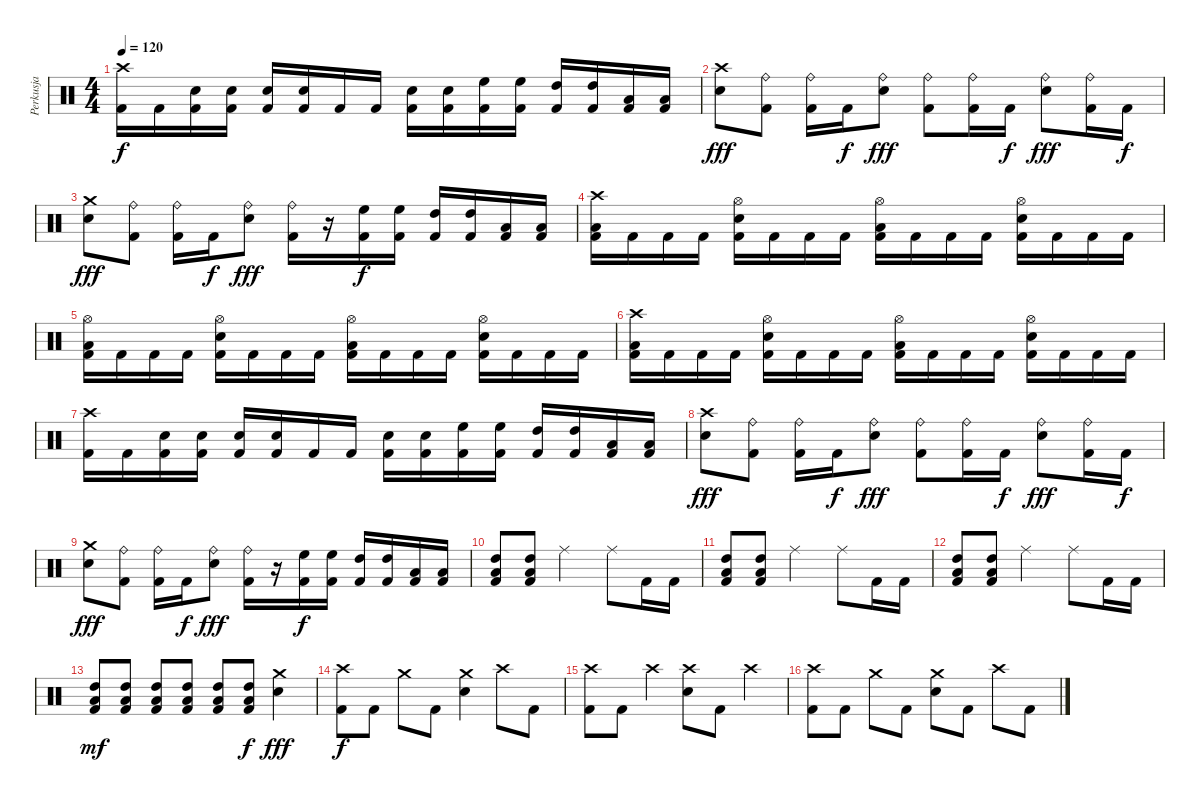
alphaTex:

\track ("Perkusja" "Perkusja") {instrument percussion}
\staff {score}
\articulation defaults
\ts (4 4)
\tempo 120
\clef neutral
\ks c
("Crash high (hit)" "Kick (hit) 2").16{dy f} "Kick (hit) 2".16 ("Electric Snare (hit)" "Kick (hit) 2").16 ("Electric Snare (hit)" "Kick (hit) 2").16 ("Electric Snare (hit)" "Kick (hit) 2").16 ("Electric Snare (hit)" "Kick (hit) 2").16 "Kick (hit) 2".16 "Kick (hit) 2".16 ("Electric Snare (hit)" "Kick (hit) 2").16 ("Electric Snare (hit)" "Kick (hit) 2").16 ("High Floor Tom (hit)" "Kick (hit) 2").16 ("High Floor Tom (hit)" "Kick (hit) 2").16 ("High Tom (hit)" "Kick (hit) 2").16 ("High Tom (hit)" "Kick (hit) 2").16 ("Low Floor Tom (hit)" "Kick (hit) 2").16 ("Low Floor Tom (hit)" "Kick (hit) 2").16 |
("Crash high (hit)" "Electric Snare (hit)").8{dy fff} ("Ride (bell)" "Kick (hit) 2").8 ("Ride (bell)" "Kick (hit) 2").16 "Kick (hit) 2".16{dy f} ("Ride (bell)" "Electric Snare (hit)").8{dy fff} ("Ride (bell)" "Kick (hit) 2").8 ("Ride (bell)" "Kick (hit) 2").16 "Kick (hit) 2".16{dy f} ("Ride (bell)" "Electric Snare (hit)").8{dy fff} ("Ride (bell)" "Kick (hit) 2").16 "Kick (hit) 2".16{dy f} |
("Crash medium (hit)" "Electric Snare (hit)").8{dy fff} ("Ride (bell)" "Kick (hit) 2").8 ("Ride (bell)" "Kick (hit) 2").16 "Kick (hit) 2".16{dy f} ("Ride (bell)" "Electric Snare (hit)").8{dy fff} ("Ride (bell)" "Kick (hit) 2").16 r.16 ("High Floor Tom (hit)" "Kick (hit) 2").16{dy f} ("High Floor Tom (hit)" "Kick (hit) 2").16 ("High Tom (hit)" "Kick (hit) 2").16 ("High Tom (hit)" "Kick (hit) 2").16 ("Low Floor Tom (hit)" "Kick (hit) 2").16 ("Low Floor Tom (hit)" "Kick (hit) 2").16 |
("Crash high (hit)" "Low Floor Tom (hit)" "Kick (hit) 2").16 "Kick (hit) 2".16 "Kick (hit) 2".16 "Kick (hit) 2".16 ("Hi-Hat (open)" "Electric Snare (hit)" "Kick (hit) 2").16 "Kick (hit) 2".16 "Kick (hit) 2".16 "Kick (hit) 2".16 ("Hi-Hat (open)" "Low Floor Tom (hit)" "Kick (hit) 2").16 "Kick (hit) 2".16 "Kick (hit) 2".16 "Kick (hit) 2".16 ("Hi-Hat (open)" "Electric Snare (hit)" "Kick (hit) 2").16 "Kick (hit) 2".16 "Kick (hit) 2".16 "Kick (hit) 2".16 |
("Hi-Hat (open)" "Low Floor Tom (hit)" "Kick (hit) 2").16 "Kick (hit) 2".16 "Kick (hit) 2".16 "Kick (hit) 2".16 ("Hi-Hat (open)" "Electric Snare (hit)" "Kick (hit) 2").16 "Kick (hit) 2".16 "Kick (hit) 2".16 "Kick (hit) 2".16 ("Hi-Hat (open)" "Low Floor Tom (hit)" "Kick (hit) 2").16 "Kick (hit) 2".16 "Kick (hit) 2".16 "Kick (hit) 2".16 ("Hi-Hat (open)" "Electric Snare (hit)" "Kick (hit) 2").16 "Kick (hit) 2".16 "Kick (hit) 2".16 "Kick (hit) 2".16 |
("Crash high (hit)" "Low Floor Tom (hit)" "Kick (hit) 2").16 "Kick (hit) 2".16 "Kick (hit) 2".16 "Kick (hit) 2".16 ("Hi-Hat (open)" "Electric Snare (hit)" "Kick (hit) 2").16 "Kick (hit) 2".16 "Kick (hit) 2".16 "Kick (hit) 2".16 ("Hi-Hat (open)" "Low Floor Tom (hit)" "Kick (hit) 2").16 "Kick (hit) 2".16 "Kick (hit) 2".16 "Kick (hit) 2".16 ("Hi-Hat (open)" "Electric Snare (hit)" "Kick (hit) 2").16 "Kick (hit) 2".16 "Kick (hit) 2".16 "Kick (hit) 2".16 |
("Crash high (hit)" "Kick (hit) 2").16 "Kick (hit) 2".16 ("Electric Snare (hit)" "Kick (hit) 2").16 ("Electric Snare (hit)" "Kick (hit) 2").16 ("Electric Snare (hit)" "Kick (hit) 2").16 ("Electric Snare (hit)" "Kick (hit) 2").16 "Kick (hit) 2".16 "Kick (hit) 2".16 ("Electric Snare (hit)" "Kick (hit) 2").16 ("Electric Snare (hit)" "Kick (hit) 2").16 ("High Floor Tom (hit)" "Kick (hit) 2").16 ("High Floor Tom (hit)" "Kick (hit) 2").16 ("High Tom (hit)" "Kick (hit) 2").16 ("High Tom (hit)" "Kick (hit) 2").16 ("Low Floor Tom (hit)" "Kick (hit) 2").16 ("Low Floor Tom (hit)" "Kick (hit) 2").16 |
("Crash high (hit)" "Electric Snare (hit)").8{dy fff} ("Ride (bell)" "Kick (hit) 2").8 ("Ride (bell)" "Kick (hit) 2").16 "Kick (hit) 2".16{dy f} ("Ride (bell)" "Electric Snare (hit)").8{dy fff} ("Ride (bell)" "Kick (hit) 2").8 ("Ride (bell)" "Kick (hit) 2").16 "Kick (hit) 2".16{dy f} ("Ride (bell)" "Electric Snare (hit)").8{dy fff} ("Ride (bell)" "Kick (hit) 2").16 "Kick (hit) 2".16{dy f} |
("Crash medium (hit)" "Electric Snare (hit)").8{dy fff} ("Ride (bell)" "Kick (hit) 2").8 ("Ride (bell)" "Kick (hit) 2").16 "Kick (hit) 2".16{dy f} ("Ride (bell)" "Electric Snare (hit)").8{dy fff} ("Ride (bell)" "Kick (hit) 2").16 r.16 ("High Floor Tom (hit)" "Kick (hit) 2").16{dy f} ("High Floor Tom (hit)" "Kick (hit) 2").16 ("High Tom (hit)" "Kick (hit) 2").16 ("High Tom (hit)" "Kick (hit) 2").16 ("Low Floor Tom (hit)" "Kick (hit) 2").16 ("Low Floor Tom (hit)" "Kick (hit) 2").16 |
("High Tom (hit)" "Low Floor Tom (hit)" "Kick (hit) 2").8 ("High Tom (hit)" "Low Floor Tom (hit)" "Kick (hit) 2").8 "Ride (middle)".2 "Ride (middle)".8 "Kick (hit) 2".16 "Kick (hit) 2".16 |
("High Tom (hit)" "Low Floor Tom (hit)" "Kick (hit) 2").8 ("High Tom (hit)" "Low Floor Tom (hit)" "Kick (hit) 2").8 "Ride (middle)".2 "Ride (middle)".8 "Kick (hit) 2".16 "Kick (hit) 2".16 |
("High Tom (hit)" "Low Floor Tom (hit)" "Kick (hit) 2").8 ("High Tom (hit)" "Low Floor Tom (hit)" "Kick (hit) 2").8 "Ride (middle)".2 "Ride (middle)".8 "Kick (hit) 2".16 "Kick (hit) 2".16 |
("High Tom (hit)" "Low Floor Tom (hit)" "Kick (hit) 2").8{dy mf} ("High Tom (hit)" "Low Floor Tom (hit)" "Kick (hit) 2").8 ("High Tom (hit)" "Low Floor Tom (hit)" "Kick (hit) 2").8 ("High Tom (hit)" "Low Floor Tom (hit)" "Kick (hit) 2").8 ("High Tom (hit)" "Low Floor Tom (hit)" "Kick (hit) 2").8 ("High Tom (hit)" "Low Floor Tom (hit)" "Kick (hit) 2").8{dy f} ("Crash medium (hit)" "Electric Snare (hit)").4{dy fff} |
("Crash high (hit)" "Kick (hit) 2").8{dy f} "Kick (hit) 2".8 "Crash medium (hit)".8 "Kick (hit) 2".8 ("Crash medium (hit)" "Electric Snare (hit)").4 "Crash high (hit)".8 "Kick (hit) 2".8 |
("Crash high (hit)" "Kick (hit) 2").8 "Kick (hit) 2".8 "Crash high (hit)".4 ("Crash high (hit)" "Electric Snare (hit)").8 "Kick (hit) 2".8 "Crash high (hit)".4 |
("Crash high (hit)" "Kick (hit) 2").8 "Kick (hit) 2".8 "Crash medium (hit)".8 "Kick (hit) 2".8 ("Crash medium (hit)" "Electric Snare (hit)").8 "Kick (hit) 2".8 "Crash high (hit)".8 "Kick (hit) 2".8
